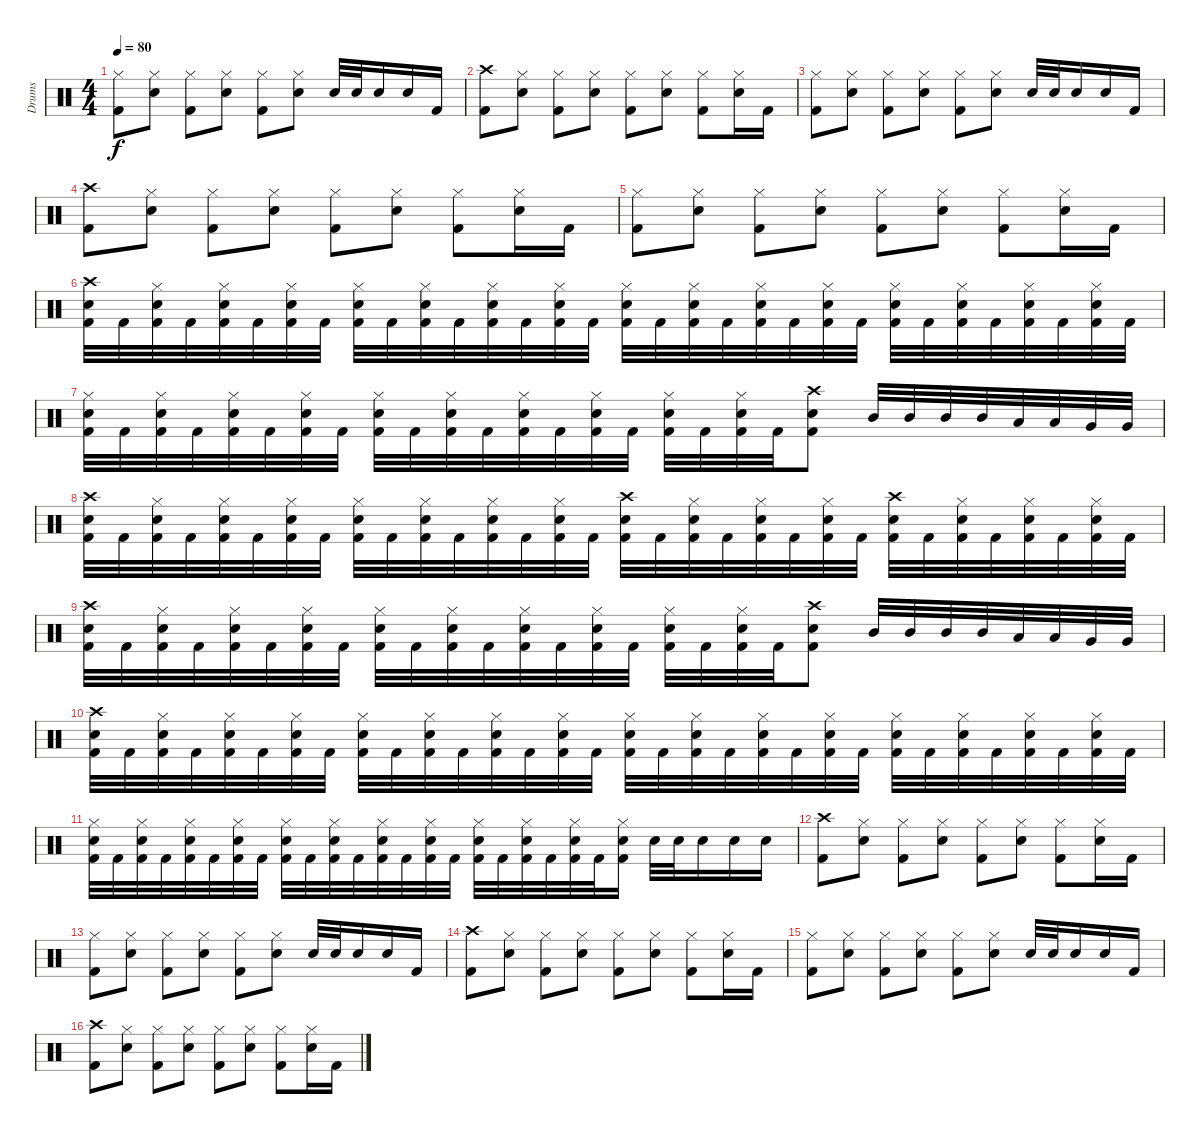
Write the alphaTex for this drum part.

\track ("Drums" "Drums") {instrument percussion}
\staff {score}
\articulation defaults
\ts (4 4)
\tempo 80
\clef neutral
\ks c
("Hi-Hat (closed)" "Kick (hit) 2").8{dy f} ("Hi-Hat (closed)" "Electric Snare (hit)").8 ("Hi-Hat (closed)" "Kick (hit) 2").8 ("Hi-Hat (closed)" "Electric Snare (hit)").8 ("Hi-Hat (closed)" "Kick (hit) 2").8 ("Hi-Hat (closed)" "Electric Snare (hit)").8 "Electric Snare (hit)".32 "Electric Snare (hit)".32 "Electric Snare (hit)".16 "Electric Snare (hit)".16 "Kick (hit) 2".16 |
("Crash high (hit)" "Kick (hit) 2").8 ("Hi-Hat (closed)" "Electric Snare (hit)").8 ("Hi-Hat (closed)" "Kick (hit) 2").8 ("Hi-Hat (closed)" "Electric Snare (hit)").8 ("Hi-Hat (closed)" "Kick (hit) 2").8 ("Hi-Hat (closed)" "Electric Snare (hit)").8 ("Hi-Hat (closed)" "Kick (hit) 2").8 ("Hi-Hat (closed)" "Electric Snare (hit)").16 "Kick (hit) 2".16 |
("Hi-Hat (closed)" "Kick (hit) 2").8 ("Hi-Hat (closed)" "Electric Snare (hit)").8 ("Hi-Hat (closed)" "Kick (hit) 2").8 ("Hi-Hat (closed)" "Electric Snare (hit)").8 ("Hi-Hat (closed)" "Kick (hit) 2").8 ("Hi-Hat (closed)" "Electric Snare (hit)").8 "Electric Snare (hit)".32 "Electric Snare (hit)".32 "Electric Snare (hit)".16 "Electric Snare (hit)".16 "Kick (hit) 2".16 |
("Crash high (hit)" "Kick (hit) 2").8 ("Hi-Hat (closed)" "Electric Snare (hit)").8 ("Hi-Hat (closed)" "Kick (hit) 2").8 ("Hi-Hat (closed)" "Electric Snare (hit)").8 ("Hi-Hat (closed)" "Kick (hit) 2").8 ("Hi-Hat (closed)" "Electric Snare (hit)").8 ("Hi-Hat (closed)" "Kick (hit) 2").8 ("Hi-Hat (closed)" "Electric Snare (hit)").16 "Kick (hit) 2".16 |
("Hi-Hat (closed)" "Kick (hit) 2").8 ("Hi-Hat (closed)" "Electric Snare (hit)").8 ("Hi-Hat (closed)" "Kick (hit) 2").8 ("Hi-Hat (closed)" "Electric Snare (hit)").8 ("Hi-Hat (closed)" "Kick (hit) 2").8 ("Hi-Hat (closed)" "Electric Snare (hit)").8 ("Hi-Hat (closed)" "Kick (hit) 2").8 ("Hi-Hat (closed)" "Electric Snare (hit)").16 "Kick (hit) 2".16 |
("Crash high (hit)" "Electric Snare (hit)" "Kick (hit) 2").32 "Kick (hit) 2".32 ("Hi-Hat (closed)" "Electric Snare (hit)" "Kick (hit) 2").32 "Kick (hit) 2".32 ("Hi-Hat (closed)" "Electric Snare (hit)" "Kick (hit) 2").32 "Kick (hit) 2".32 ("Hi-Hat (closed)" "Electric Snare (hit)" "Kick (hit) 2").32 "Kick (hit) 2".32 ("Hi-Hat (closed)" "Electric Snare (hit)" "Kick (hit) 2").32 "Kick (hit) 2".32 ("Hi-Hat (closed)" "Electric Snare (hit)" "Kick (hit) 2").32 "Kick (hit) 2".32 ("Hi-Hat (closed)" "Electric Snare (hit)" "Kick (hit) 2").32 "Kick (hit) 2".32 ("Hi-Hat (closed)" "Electric Snare (hit)" "Kick (hit) 2").32 "Kick (hit) 2".32 ("Hi-Hat (closed)" "Electric Snare (hit)" "Kick (hit) 2").32 "Kick (hit) 2".32 ("Hi-Hat (closed)" "Electric Snare (hit)" "Kick (hit) 2").32 "Kick (hit) 2".32 ("Hi-Hat (closed)" "Electric Snare (hit)" "Kick (hit) 2").32 "Kick (hit) 2".32 ("Hi-Hat (closed)" "Electric Snare (hit)" "Kick (hit) 2").32 "Kick (hit) 2".32 ("Hi-Hat (closed)" "Electric Snare (hit)" "Kick (hit) 2").32 "Kick (hit) 2".32 ("Hi-Hat (closed)" "Electric Snare (hit)" "Kick (hit) 2").32 "Kick (hit) 2".32 ("Hi-Hat (closed)" "Electric Snare (hit)" "Kick (hit) 2").32 "Kick (hit) 2".32 ("Hi-Hat (closed)" "Electric Snare (hit)" "Kick (hit) 2").32 "Kick (hit) 2".32 |
("Hi-Hat (closed)" "Electric Snare (hit)" "Kick (hit) 2").32 "Kick (hit) 2".32 ("Hi-Hat (closed)" "Electric Snare (hit)" "Kick (hit) 2").32 "Kick (hit) 2".32 ("Hi-Hat (closed)" "Electric Snare (hit)" "Kick (hit) 2").32 "Kick (hit) 2".32 ("Hi-Hat (closed)" "Electric Snare (hit)" "Kick (hit) 2").32 "Kick (hit) 2".32 ("Hi-Hat (closed)" "Electric Snare (hit)" "Kick (hit) 2").32 "Kick (hit) 2".32 ("Hi-Hat (closed)" "Electric Snare (hit)" "Kick (hit) 2").32 "Kick (hit) 2".32 ("Hi-Hat (closed)" "Electric Snare (hit)" "Kick (hit) 2").32 "Kick (hit) 2".32 ("Hi-Hat (closed)" "Electric Snare (hit)" "Kick (hit) 2").32 "Kick (hit) 2".32 ("Hi-Hat (closed)" "Electric Snare (hit)" "Kick (hit) 2").32 "Kick (hit) 2".32 ("Hi-Hat (closed)" "Electric Snare (hit)" "Kick (hit) 2").32 "Kick (hit) 2".32 ("Crash high (hit)" "Electric Snare (hit)" "Kick (hit) 2").8 "Mid Tom (hit)".32 "Mid Tom (hit)".32 "Mid Tom (hit)".32 "Mid Tom (hit)".32 "Low Tom (hit)".32 "Low Tom (hit)".32 "Very Low Tom (hit)".32 "Very Low Tom (hit)".32 |
("Crash high (hit)" "Electric Snare (hit)" "Kick (hit) 2").32 "Kick (hit) 2".32 ("Hi-Hat (closed)" "Electric Snare (hit)" "Kick (hit) 2").32 "Kick (hit) 2".32 ("Hi-Hat (closed)" "Electric Snare (hit)" "Kick (hit) 2").32 "Kick (hit) 2".32 ("Hi-Hat (closed)" "Electric Snare (hit)" "Kick (hit) 2").32 "Kick (hit) 2".32 ("Hi-Hat (closed)" "Electric Snare (hit)" "Kick (hit) 2").32 "Kick (hit) 2".32 ("Hi-Hat (closed)" "Electric Snare (hit)" "Kick (hit) 2").32 "Kick (hit) 2".32 ("Hi-Hat (closed)" "Electric Snare (hit)" "Kick (hit) 2").32 "Kick (hit) 2".32 ("Hi-Hat (closed)" "Electric Snare (hit)" "Kick (hit) 2").32 "Kick (hit) 2".32 ("Crash high (hit)" "Electric Snare (hit)" "Kick (hit) 2").32 "Kick (hit) 2".32 ("Hi-Hat (closed)" "Electric Snare (hit)" "Kick (hit) 2").32 "Kick (hit) 2".32 ("Hi-Hat (closed)" "Electric Snare (hit)" "Kick (hit) 2").32 "Kick (hit) 2".32 ("Hi-Hat (closed)" "Electric Snare (hit)" "Kick (hit) 2").32 "Kick (hit) 2".32 ("Crash high (hit)" "Electric Snare (hit)" "Kick (hit) 2").32 "Kick (hit) 2".32 ("Hi-Hat (closed)" "Electric Snare (hit)" "Kick (hit) 2").32 "Kick (hit) 2".32 ("Hi-Hat (closed)" "Electric Snare (hit)" "Kick (hit) 2").32 "Kick (hit) 2".32 ("Hi-Hat (closed)" "Electric Snare (hit)" "Kick (hit) 2").32 "Kick (hit) 2".32 |
("Crash high (hit)" "Electric Snare (hit)" "Kick (hit) 2").32 "Kick (hit) 2".32 ("Hi-Hat (closed)" "Electric Snare (hit)" "Kick (hit) 2").32 "Kick (hit) 2".32 ("Hi-Hat (closed)" "Electric Snare (hit)" "Kick (hit) 2").32 "Kick (hit) 2".32 ("Hi-Hat (closed)" "Electric Snare (hit)" "Kick (hit) 2").32 "Kick (hit) 2".32 ("Hi-Hat (closed)" "Electric Snare (hit)" "Kick (hit) 2").32 "Kick (hit) 2".32 ("Hi-Hat (closed)" "Electric Snare (hit)" "Kick (hit) 2").32 "Kick (hit) 2".32 ("Hi-Hat (closed)" "Electric Snare (hit)" "Kick (hit) 2").32 "Kick (hit) 2".32 ("Hi-Hat (closed)" "Electric Snare (hit)" "Kick (hit) 2").32 "Kick (hit) 2".32 ("Hi-Hat (closed)" "Electric Snare (hit)" "Kick (hit) 2").32 "Kick (hit) 2".32 ("Hi-Hat (closed)" "Electric Snare (hit)" "Kick (hit) 2").32 "Kick (hit) 2".32 ("Crash high (hit)" "Electric Snare (hit)" "Kick (hit) 2").8 "Mid Tom (hit)".32 "Mid Tom (hit)".32 "Mid Tom (hit)".32 "Mid Tom (hit)".32 "Low Tom (hit)".32 "Low Tom (hit)".32 "Very Low Tom (hit)".32 "Very Low Tom (hit)".32 |
("Crash high (hit)" "Electric Snare (hit)" "Kick (hit) 2").32 "Kick (hit) 2".32 ("Hi-Hat (closed)" "Electric Snare (hit)" "Kick (hit) 2").32 "Kick (hit) 2".32 ("Hi-Hat (closed)" "Electric Snare (hit)" "Kick (hit) 2").32 "Kick (hit) 2".32 ("Hi-Hat (closed)" "Electric Snare (hit)" "Kick (hit) 2").32 "Kick (hit) 2".32 ("Hi-Hat (closed)" "Electric Snare (hit)" "Kick (hit) 2").32 "Kick (hit) 2".32 ("Hi-Hat (closed)" "Electric Snare (hit)" "Kick (hit) 2").32 "Kick (hit) 2".32 ("Hi-Hat (closed)" "Electric Snare (hit)" "Kick (hit) 2").32 "Kick (hit) 2".32 ("Hi-Hat (closed)" "Electric Snare (hit)" "Kick (hit) 2").32 "Kick (hit) 2".32 ("Hi-Hat (closed)" "Electric Snare (hit)" "Kick (hit) 2").32 "Kick (hit) 2".32 ("Hi-Hat (closed)" "Electric Snare (hit)" "Kick (hit) 2").32 "Kick (hit) 2".32 ("Hi-Hat (closed)" "Electric Snare (hit)" "Kick (hit) 2").32 "Kick (hit) 2".32 ("Hi-Hat (closed)" "Electric Snare (hit)" "Kick (hit) 2").32 "Kick (hit) 2".32 ("Hi-Hat (closed)" "Electric Snare (hit)" "Kick (hit) 2").32 "Kick (hit) 2".32 ("Hi-Hat (closed)" "Electric Snare (hit)" "Kick (hit) 2").32 "Kick (hit) 2".32 ("Hi-Hat (closed)" "Electric Snare (hit)" "Kick (hit) 2").32 "Kick (hit) 2".32 ("Hi-Hat (closed)" "Electric Snare (hit)" "Kick (hit) 2").32 "Kick (hit) 2".32 |
("Hi-Hat (closed)" "Electric Snare (hit)" "Kick (hit) 2").32 "Kick (hit) 2".32 ("Hi-Hat (closed)" "Electric Snare (hit)" "Kick (hit) 2").32 "Kick (hit) 2".32 ("Hi-Hat (closed)" "Electric Snare (hit)" "Kick (hit) 2").32 "Kick (hit) 2".32 ("Hi-Hat (closed)" "Electric Snare (hit)" "Kick (hit) 2").32 "Kick (hit) 2".32 ("Hi-Hat (closed)" "Electric Snare (hit)" "Kick (hit) 2").32 "Kick (hit) 2".32 ("Hi-Hat (closed)" "Electric Snare (hit)" "Kick (hit) 2").32 "Kick (hit) 2".32 ("Hi-Hat (closed)" "Electric Snare (hit)" "Kick (hit) 2").32 "Kick (hit) 2".32 ("Hi-Hat (closed)" "Electric Snare (hit)" "Kick (hit) 2").32 "Kick (hit) 2".32 ("Hi-Hat (closed)" "Electric Snare (hit)" "Kick (hit) 2").32 "Kick (hit) 2".32 ("Hi-Hat (closed)" "Electric Snare (hit)" "Kick (hit) 2").32 "Kick (hit) 2".32 ("Hi-Hat (closed)" "Electric Snare (hit)" "Kick (hit) 2").32 "Kick (hit) 2".32 ("Hi-Hat (closed)" "Electric Snare (hit)" "Kick (hit) 2").16 "Electric Snare (hit)".32 "Electric Snare (hit)".32 "Electric Snare (hit)".16 "Electric Snare (hit)".16 "Electric Snare (hit)".16 |
("Crash high (hit)" "Kick (hit) 2").8 ("Hi-Hat (closed)" "Electric Snare (hit)").8 ("Hi-Hat (closed)" "Kick (hit) 2").8 ("Hi-Hat (closed)" "Electric Snare (hit)").8 ("Hi-Hat (closed)" "Kick (hit) 2").8 ("Hi-Hat (closed)" "Electric Snare (hit)").8 ("Hi-Hat (closed)" "Kick (hit) 2").8 ("Hi-Hat (closed)" "Electric Snare (hit)").16 "Kick (hit) 2".16 |
("Hi-Hat (closed)" "Kick (hit) 2").8 ("Hi-Hat (closed)" "Electric Snare (hit)").8 ("Hi-Hat (closed)" "Kick (hit) 2").8 ("Hi-Hat (closed)" "Electric Snare (hit)").8 ("Hi-Hat (closed)" "Kick (hit) 2").8 ("Hi-Hat (closed)" "Electric Snare (hit)").8 "Electric Snare (hit)".32 "Electric Snare (hit)".32 "Electric Snare (hit)".16 "Electric Snare (hit)".16 "Kick (hit) 2".16 |
("Crash high (hit)" "Kick (hit) 2").8 ("Hi-Hat (closed)" "Electric Snare (hit)").8 ("Hi-Hat (closed)" "Kick (hit) 2").8 ("Hi-Hat (closed)" "Electric Snare (hit)").8 ("Hi-Hat (closed)" "Kick (hit) 2").8 ("Hi-Hat (closed)" "Electric Snare (hit)").8 ("Hi-Hat (closed)" "Kick (hit) 2").8 ("Hi-Hat (closed)" "Electric Snare (hit)").16 "Kick (hit) 2".16 |
("Hi-Hat (closed)" "Kick (hit) 2").8 ("Hi-Hat (closed)" "Electric Snare (hit)").8 ("Hi-Hat (closed)" "Kick (hit) 2").8 ("Hi-Hat (closed)" "Electric Snare (hit)").8 ("Hi-Hat (closed)" "Kick (hit) 2").8 ("Hi-Hat (closed)" "Electric Snare (hit)").8 "Electric Snare (hit)".32 "Electric Snare (hit)".32 "Electric Snare (hit)".16 "Electric Snare (hit)".16 "Kick (hit) 2".16 |
("Crash high (hit)" "Kick (hit) 2").8 ("Hi-Hat (closed)" "Electric Snare (hit)").8 ("Hi-Hat (closed)" "Kick (hit) 2").8 ("Hi-Hat (closed)" "Electric Snare (hit)").8 ("Hi-Hat (closed)" "Kick (hit) 2").8 ("Hi-Hat (closed)" "Electric Snare (hit)").8 ("Hi-Hat (closed)" "Kick (hit) 2").8 ("Hi-Hat (closed)" "Electric Snare (hit)").16 "Kick (hit) 2".16
